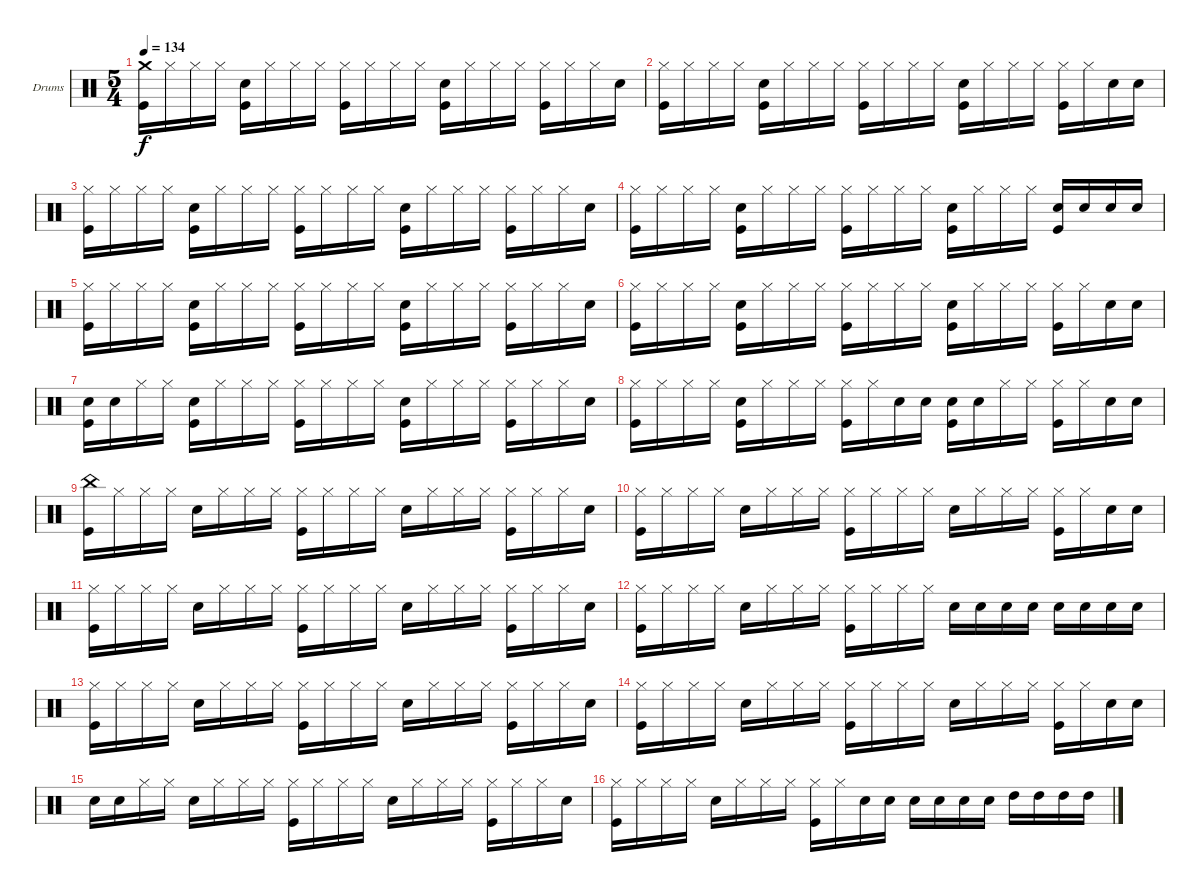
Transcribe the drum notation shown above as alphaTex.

\bracketExtendMode groupsimilarinstruments
\firstSystemTrackNameOrientation horizontal
\otherSystemsTrackNameOrientation horizontal
\track ("Drumkit" "Drums") {instrument percussion}
\staff {score}
\articulation defaults
\ts (5 4)
\tempo 134
\clef neutral
\ks c
("Crash medium (hit)" "Kick (hit)").16{dy f} "Hi-Hat (closed)".16 "Hi-Hat (closed)".16 "Hi-Hat (closed)".16 ("Snare (hit) 2" "Kick (hit)").16 "Hi-Hat (closed)".16 "Hi-Hat (closed)".16 "Hi-Hat (closed)".16 ("Kick (hit)" "Hi-Hat (closed)").16 "Hi-Hat (closed)".16 "Hi-Hat (closed)".16 "Hi-Hat (closed)".16 ("Snare (hit) 2" "Kick (hit)").16 "Hi-Hat (closed)".16 "Hi-Hat (closed)".16 "Hi-Hat (closed)".16 ("Kick (hit)" "Hi-Hat (closed)").16 "Hi-Hat (closed)".16 "Hi-Hat (closed)".16 "Snare (hit) 2".16 |
("Hi-Hat (closed)" "Kick (hit)").16 "Hi-Hat (closed)".16 "Hi-Hat (closed)".16 "Hi-Hat (closed)".16 ("Snare (hit) 2" "Kick (hit)").16 "Hi-Hat (closed)".16 "Hi-Hat (closed)".16 "Hi-Hat (closed)".16 ("Kick (hit)" "Hi-Hat (closed)").16 "Hi-Hat (closed)".16 "Hi-Hat (closed)".16 "Hi-Hat (closed)".16 ("Snare (hit) 2" "Kick (hit)").16 "Hi-Hat (closed)".16 "Hi-Hat (closed)".16 "Hi-Hat (closed)".16 ("Kick (hit)" "Hi-Hat (closed)").16 "Hi-Hat (closed)".16 "Snare (hit) 2".16 "Snare (hit) 2".16 |
("Kick (hit)" "Hi-Hat (closed)").16 "Hi-Hat (closed)".16 "Hi-Hat (closed)".16 "Hi-Hat (closed)".16 ("Snare (hit) 2" "Kick (hit)").16 "Hi-Hat (closed)".16 "Hi-Hat (closed)".16 "Hi-Hat (closed)".16 ("Kick (hit)" "Hi-Hat (closed)").16 "Hi-Hat (closed)".16 "Hi-Hat (closed)".16 "Hi-Hat (closed)".16 ("Snare (hit) 2" "Kick (hit)").16 "Hi-Hat (closed)".16 "Hi-Hat (closed)".16 "Hi-Hat (closed)".16 ("Kick (hit)" "Hi-Hat (closed)").16 "Hi-Hat (closed)".16 "Hi-Hat (closed)".16 "Snare (hit) 2".16 |
("Kick (hit)" "Hi-Hat (closed)").16 "Hi-Hat (closed)".16 "Hi-Hat (closed)".16 "Hi-Hat (closed)".16 ("Snare (hit) 2" "Kick (hit)").16 "Hi-Hat (closed)".16 "Hi-Hat (closed)".16 "Hi-Hat (closed)".16 ("Kick (hit)" "Hi-Hat (closed)").16 "Hi-Hat (closed)".16 "Hi-Hat (closed)".16 "Hi-Hat (closed)".16 ("Snare (hit) 2" "Kick (hit)").16 "Hi-Hat (closed)".16 "Hi-Hat (closed)".16 "Hi-Hat (closed)".16 ("Snare (hit) 2" "Kick (hit)").16 "Snare (hit) 2".16 "Snare (hit) 2".16 "Snare (hit) 2".16 |
("Kick (hit)" "Hi-Hat (closed)").16 "Hi-Hat (closed)".16 "Hi-Hat (closed)".16 "Hi-Hat (closed)".16 ("Snare (hit) 2" "Kick (hit)").16 "Hi-Hat (closed)".16 "Hi-Hat (closed)".16 "Hi-Hat (closed)".16 ("Hi-Hat (closed)" "Kick (hit)").16 "Hi-Hat (closed)".16 "Hi-Hat (closed)".16 "Hi-Hat (closed)".16 ("Snare (hit) 2" "Kick (hit)").16 "Hi-Hat (closed)".16 "Hi-Hat (closed)".16 "Hi-Hat (closed)".16 ("Hi-Hat (closed)" "Kick (hit)").16 "Hi-Hat (closed)".16 "Hi-Hat (closed)".16 "Snare (hit) 2".16 |
("Kick (hit)" "Hi-Hat (closed)").16 "Hi-Hat (closed)".16 "Hi-Hat (closed)".16 "Hi-Hat (closed)".16 ("Snare (hit) 2" "Kick (hit)").16 "Hi-Hat (closed)".16 "Hi-Hat (closed)".16 "Hi-Hat (closed)".16 ("Hi-Hat (closed)" "Kick (hit)").16 "Hi-Hat (closed)".16 "Hi-Hat (closed)".16 "Hi-Hat (closed)".16 ("Snare (hit) 2" "Kick (hit)").16 "Hi-Hat (closed)".16 "Hi-Hat (closed)".16 "Hi-Hat (closed)".16 ("Hi-Hat (closed)" "Kick (hit)").16 "Hi-Hat (closed)".16 "Snare (hit) 2".16 "Snare (hit) 2".16 |
("Snare (hit) 2" "Kick (hit)").16 "Snare (hit) 2".16 "Hi-Hat (closed)".16 "Hi-Hat (closed)".16 ("Snare (hit) 2" "Kick (hit)").16 "Hi-Hat (closed)".16 "Hi-Hat (closed)".16 "Hi-Hat (closed)".16 ("Kick (hit)" "Hi-Hat (closed)").16 "Hi-Hat (closed)".16 "Hi-Hat (closed)".16 "Hi-Hat (closed)".16 ("Snare (hit) 2" "Kick (hit)").16 "Hi-Hat (closed)".16 "Hi-Hat (closed)".16 "Hi-Hat (closed)".16 ("Hi-Hat (closed)" "Kick (hit)").16 "Hi-Hat (closed)".16 "Hi-Hat (closed)".16 "Snare (hit) 2".16 |
("Hi-Hat (closed)" "Kick (hit)").16 "Hi-Hat (closed)".16 "Hi-Hat (closed)".16 "Hi-Hat (closed)".16 ("Snare (hit) 2" "Kick (hit)").16 "Hi-Hat (closed)".16 "Hi-Hat (closed)".16 "Hi-Hat (closed)".16 ("Hi-Hat (closed)" "Kick (hit)").16 "Hi-Hat (closed)".16 "Snare (hit) 2".16 "Snare (hit) 2".16 ("Snare (hit) 2" "Kick (hit)").16 "Snare (hit) 2".16 "Hi-Hat (closed)".16 "Hi-Hat (closed)".16 ("Kick (hit)" "Hi-Hat (closed)").16 "Hi-Hat (closed)".16 "Snare (hit) 2".16 "Snare (hit) 2".16 |
("China (hit)" "Kick (hit)").16 "Hi-Hat (closed)".16 "Hi-Hat (closed)".16 "Hi-Hat (closed)".16 "Snare (hit) 2".16 "Hi-Hat (closed)".16 "Hi-Hat (closed)".16 "Hi-Hat (closed)".16 ("Hi-Hat (closed)" "Kick (hit)").16 "Hi-Hat (closed)".16 "Hi-Hat (closed)".16 "Hi-Hat (closed)".16 "Snare (hit) 2".16 "Hi-Hat (closed)".16 "Hi-Hat (closed)".16 "Hi-Hat (closed)".16 ("Hi-Hat (closed)" "Kick (hit)").16 "Hi-Hat (closed)".16 "Hi-Hat (closed)".16 "Snare (hit) 2".16 |
("Kick (hit)" "Hi-Hat (closed)").16 "Hi-Hat (closed)".16 "Hi-Hat (closed)".16 "Hi-Hat (closed)".16 "Snare (hit) 2".16 "Hi-Hat (closed)".16 "Hi-Hat (closed)".16 "Hi-Hat (closed)".16 ("Hi-Hat (closed)" "Kick (hit)").16 "Hi-Hat (closed)".16 "Hi-Hat (closed)".16 "Hi-Hat (closed)".16 "Snare (hit) 2".16 "Hi-Hat (closed)".16 "Hi-Hat (closed)".16 "Hi-Hat (closed)".16 ("Hi-Hat (closed)" "Kick (hit)").16 "Hi-Hat (closed)".16 "Snare (hit) 2".16 "Snare (hit) 2".16 |
("Hi-Hat (closed)" "Kick (hit)").16 "Hi-Hat (closed)".16 "Hi-Hat (closed)".16 "Hi-Hat (closed)".16 "Snare (hit) 2".16 "Hi-Hat (closed)".16 "Hi-Hat (closed)".16 "Hi-Hat (closed)".16 ("Hi-Hat (closed)" "Kick (hit)").16 "Hi-Hat (closed)".16 "Hi-Hat (closed)".16 "Hi-Hat (closed)".16 "Snare (hit) 2".16 "Hi-Hat (closed)".16 "Hi-Hat (closed)".16 "Hi-Hat (closed)".16 ("Hi-Hat (closed)" "Kick (hit)").16 "Hi-Hat (closed)".16 "Hi-Hat (closed)".16 "Snare (hit) 2".16 |
("Hi-Hat (closed)" "Kick (hit)").16 "Hi-Hat (closed)".16 "Hi-Hat (closed)".16 "Hi-Hat (closed)".16 "Snare (hit) 2".16 "Hi-Hat (closed)".16 "Hi-Hat (closed)".16 "Hi-Hat (closed)".16 ("Hi-Hat (closed)" "Kick (hit)").16 "Hi-Hat (closed)".16 "Hi-Hat (closed)".16 "Hi-Hat (closed)".16 "Snare (hit) 2".16 "Snare (hit) 2".16 "Snare (hit) 2".16 "Snare (hit) 2".16 "Snare (hit) 2".16 "Snare (hit) 2".16 "Snare (hit) 2".16 "Snare (hit) 2".16 |
("Hi-Hat (closed)" "Kick (hit)").16 "Hi-Hat (closed)".16 "Hi-Hat (closed)".16 "Hi-Hat (closed)".16 "Snare (hit) 2".16 "Hi-Hat (closed)".16 "Hi-Hat (closed)".16 "Hi-Hat (closed)".16 ("Kick (hit)" "Hi-Hat (closed)").16 "Hi-Hat (closed)".16 "Hi-Hat (closed)".16 "Hi-Hat (closed)".16 "Snare (hit) 2".16 "Hi-Hat (closed)".16 "Hi-Hat (closed)".16 "Hi-Hat (closed)".16 ("Kick (hit)" "Hi-Hat (closed)").16 "Hi-Hat (closed)".16 "Hi-Hat (closed)".16 "Snare (hit) 2".16 |
("Hi-Hat (closed)" "Kick (hit)").16 "Hi-Hat (closed)".16 "Hi-Hat (closed)".16 "Hi-Hat (closed)".16 "Snare (hit) 2".16 "Hi-Hat (closed)".16 "Hi-Hat (closed)".16 "Hi-Hat (closed)".16 ("Kick (hit)" "Hi-Hat (closed)").16 "Hi-Hat (closed)".16 "Hi-Hat (closed)".16 "Hi-Hat (closed)".16 "Snare (hit) 2".16 "Hi-Hat (closed)".16 "Hi-Hat (closed)".16 "Hi-Hat (closed)".16 ("Kick (hit)" "Hi-Hat (closed)").16 "Hi-Hat (closed)".16 "Snare (hit) 2".16 "Snare (hit) 2".16 |
"Snare (hit) 2".16 "Snare (hit) 2".16 "Hi-Hat (closed)".16 "Hi-Hat (closed)".16 "Snare (hit) 2".16 "Hi-Hat (closed)".16 "Hi-Hat (closed)".16 "Hi-Hat (closed)".16 ("Kick (hit)" "Hi-Hat (closed)").16 "Hi-Hat (closed)".16 "Hi-Hat (closed)".16 "Hi-Hat (closed)".16 "Snare (hit) 2".16 "Hi-Hat (closed)".16 "Hi-Hat (closed)".16 "Hi-Hat (closed)".16 ("Kick (hit)" "Hi-Hat (closed)").16 "Hi-Hat (closed)".16 "Hi-Hat (closed)".16 "Snare (hit) 2".16 |
("Kick (hit)" "Hi-Hat (closed)").16 "Hi-Hat (closed)".16 "Hi-Hat (closed)".16 "Hi-Hat (closed)".16 "Snare (hit) 2".16 "Hi-Hat (closed)".16 "Hi-Hat (closed)".16 "Hi-Hat (closed)".16 ("Kick (hit)" "Hi-Hat (closed)").16 "Hi-Hat (closed)".16 "Snare (hit) 2".16 "Snare (hit) 2".16 "Snare (hit) 2".16 "Snare (hit) 2".16 "Snare (hit) 2".16 "Snare (hit) 2".16 "High Tom (hit)".16 "High Tom (hit)".16 "High Tom (hit)".16 "High Tom (hit)".16
